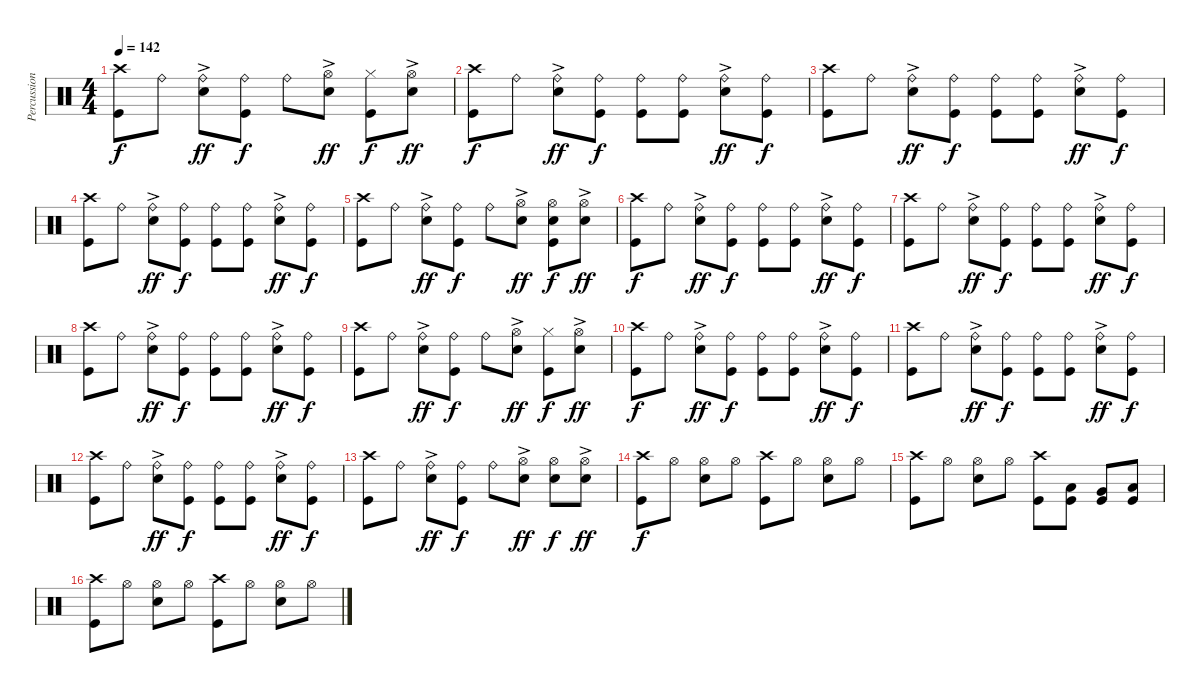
\track ("Percussion" "Percussion") {instrument percussion}
\staff {score}
\articulation defaults
\ts (4 4)
\tempo 142
\clef neutral
\ks c
("Crash high (hit)" "Kick (hit)").8{dy f} "Ride (bell)".8 ("Ride (bell)" "Electric Snare (hit)"{ac}).8{dy ff} ("Ride (bell)" "Kick (hit)").8{dy f} "Ride (bell)".8 ("Hi-Hat (open)" "Electric Snare (hit)"{ac}).8{dy ff} ("Hi-Hat (closed)" "Kick (hit)").8{dy f} ("Hi-Hat (open)" "Electric Snare (hit)"{ac}).8{dy ff} |
("Crash high (hit)" "Kick (hit)").8{dy f} "Ride (bell)".8 ("Ride (bell)" "Electric Snare (hit)"{ac}).8{dy ff} ("Ride (bell)" "Kick (hit)").8{dy f} ("Ride (bell)" "Kick (hit)").8 ("Ride (bell)" "Kick (hit)").8 ("Ride (bell)" "Electric Snare (hit)"{ac}).8{dy ff} ("Ride (bell)" "Kick (hit)").8{dy f} |
("Crash high (hit)" "Kick (hit)").8 "Ride (bell)".8 ("Ride (bell)" "Electric Snare (hit)"{ac}).8{dy ff} ("Ride (bell)" "Kick (hit)").8{dy f} ("Ride (bell)" "Kick (hit)").8 ("Ride (bell)" "Kick (hit)").8 ("Ride (bell)" "Electric Snare (hit)"{ac}).8{dy ff} ("Ride (bell)" "Kick (hit)").8{dy f} |
("Crash high (hit)" "Kick (hit)").8 "Ride (bell)".8 ("Ride (bell)" "Electric Snare (hit)"{ac}).8{dy ff} ("Ride (bell)" "Kick (hit)").8{dy f} ("Ride (bell)" "Kick (hit)").8 ("Ride (bell)" "Kick (hit)").8 ("Ride (bell)" "Electric Snare (hit)"{ac}).8{dy ff} ("Ride (bell)" "Kick (hit)").8{dy f} |
("Crash high (hit)" "Kick (hit)").8 "Ride (bell)".8 ("Ride (bell)" "Electric Snare (hit)"{ac}).8{dy ff} ("Ride (bell)" "Kick (hit)").8{dy f} "Ride (bell)".8 ("Hi-Hat (open)" "Electric Snare (hit)"{ac}).8{dy ff} ("Hi-Hat (open)" "Electric Snare (hit)" "Kick (hit)").8{dy f} ("Hi-Hat (open)" "Electric Snare (hit)"{ac}).8{dy ff} |
("Crash high (hit)" "Kick (hit)").8{dy f} "Ride (bell)".8 ("Ride (bell)" "Electric Snare (hit)"{ac}).8{dy ff} ("Ride (bell)" "Kick (hit)").8{dy f} ("Ride (bell)" "Kick (hit)").8 ("Ride (bell)" "Kick (hit)").8 ("Ride (bell)" "Electric Snare (hit)"{ac}).8{dy ff} ("Ride (bell)" "Kick (hit)").8{dy f} |
("Crash high (hit)" "Kick (hit)").8 "Ride (bell)".8 ("Ride (bell)" "Electric Snare (hit)"{ac}).8{dy ff} ("Ride (bell)" "Kick (hit)").8{dy f} ("Ride (bell)" "Kick (hit)").8 ("Ride (bell)" "Kick (hit)").8 ("Ride (bell)" "Electric Snare (hit)"{ac}).8{dy ff} ("Ride (bell)" "Kick (hit)").8{dy f} |
("Crash high (hit)" "Kick (hit)").8 "Ride (bell)".8 ("Ride (bell)" "Electric Snare (hit)"{ac}).8{dy ff} ("Ride (bell)" "Kick (hit)").8{dy f} ("Ride (bell)" "Kick (hit)").8 ("Ride (bell)" "Kick (hit)").8 ("Ride (bell)" "Electric Snare (hit)"{ac}).8{dy ff} ("Ride (bell)" "Kick (hit)").8{dy f} |
("Crash high (hit)" "Kick (hit)").8 "Ride (bell)".8 ("Ride (bell)" "Electric Snare (hit)"{ac}).8{dy ff} ("Ride (bell)" "Kick (hit)").8{dy f} "Ride (bell)".8 ("Hi-Hat (open)" "Electric Snare (hit)"{ac}).8{dy ff} ("Hi-Hat (closed)" "Kick (hit)").8{dy f} ("Hi-Hat (open)" "Electric Snare (hit)"{ac}).8{dy ff} |
("Crash high (hit)" "Kick (hit)").8{dy f} "Ride (bell)".8 ("Ride (bell)" "Electric Snare (hit)"{ac}).8{dy ff} ("Ride (bell)" "Kick (hit)").8{dy f} ("Ride (bell)" "Kick (hit)").8 ("Ride (bell)" "Kick (hit)").8 ("Ride (bell)" "Electric Snare (hit)"{ac}).8{dy ff} ("Ride (bell)" "Kick (hit)").8{dy f} |
("Crash high (hit)" "Kick (hit)").8 "Ride (bell)".8 ("Ride (bell)" "Electric Snare (hit)"{ac}).8{dy ff} ("Ride (bell)" "Kick (hit)").8{dy f} ("Ride (bell)" "Kick (hit)").8 ("Ride (bell)" "Kick (hit)").8 ("Ride (bell)" "Electric Snare (hit)"{ac}).8{dy ff} ("Ride (bell)" "Kick (hit)").8{dy f} |
("Crash high (hit)" "Kick (hit)").8 "Ride (bell)".8 ("Ride (bell)" "Electric Snare (hit)"{ac}).8{dy ff} ("Ride (bell)" "Kick (hit)").8{dy f} ("Ride (bell)" "Kick (hit)").8 ("Ride (bell)" "Kick (hit)").8 ("Ride (bell)" "Electric Snare (hit)"{ac}).8{dy ff} ("Ride (bell)" "Kick (hit)").8{dy f} |
("Crash high (hit)" "Kick (hit)").8 "Ride (bell)".8 ("Ride (bell)" "Electric Snare (hit)"{ac}).8{dy ff} ("Ride (bell)" "Kick (hit)").8{dy f} "Ride (bell)".8 ("Hi-Hat (open)" "Electric Snare (hit)"{ac}).8{dy ff} ("Hi-Hat (open)" "Electric Snare (hit)").8{dy f} ("Hi-Hat (open)" "Electric Snare (hit)"{ac}).8{dy ff} |
("Crash high (hit)" "Kick (hit)").8{dy f} "Hi-Hat (open)".8 ("Hi-Hat (open)" "Electric Snare (hit)").8 "Hi-Hat (open)".8 ("Crash high (hit)" "Kick (hit)").8 "Hi-Hat (open)".8 ("Hi-Hat (open)" "Electric Snare (hit)").8 "Hi-Hat (open)".8 |
("Crash high (hit)" "Kick (hit)").8 "Hi-Hat (open)".8 ("Hi-Hat (open)" "Electric Snare (hit)").8 "Hi-Hat (open)".8 ("Crash high (hit)" "Kick (hit)").8 ("Low Tom (hit)" "Kick (hit)").8 ("Very Low Tom (hit)" "Kick (hit)").8 ("Low Floor Tom (hit)" "Kick (hit)").8 |
("Crash high (hit)" "Kick (hit)").8 "Hi-Hat (open)".8 ("Hi-Hat (open)" "Electric Snare (hit)").8 "Hi-Hat (open)".8 ("Crash high (hit)" "Kick (hit)").8 "Hi-Hat (open)".8 ("Hi-Hat (open)" "Electric Snare (hit)").8 "Hi-Hat (open)".8
